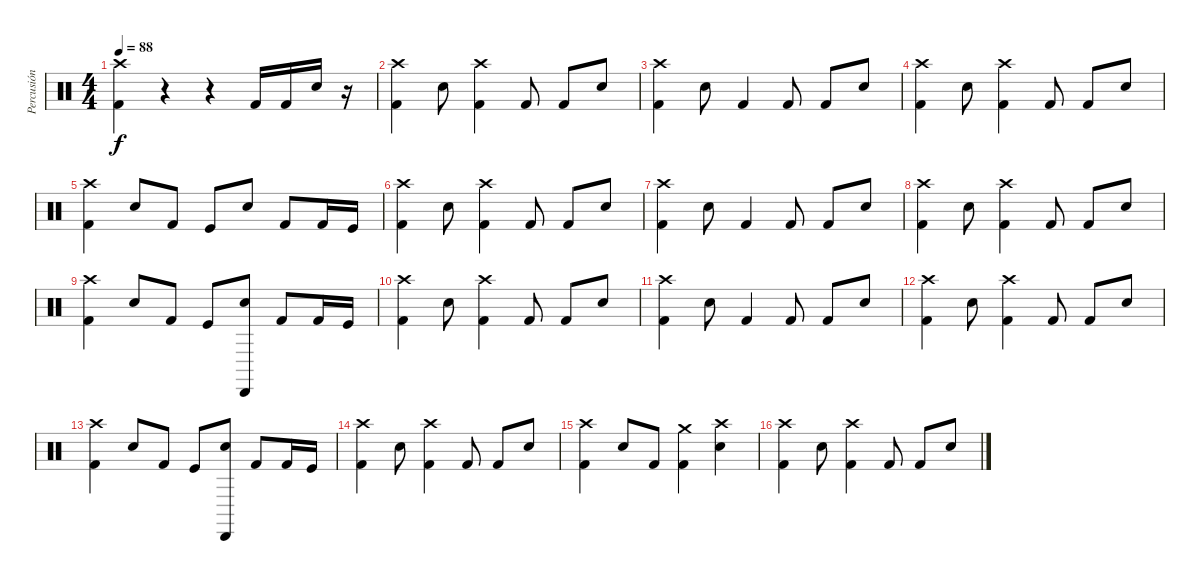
\track ("Percusión" "Percusión") {instrument percussion}
\staff {score}
\articulation defaults
\ts (4 4)
\tempo 88
\clef neutral
\ks c
("Crash high (hit)" "Kick (hit) 2").4{dy f} r.4 r.4 "Kick (hit) 2".16 "Kick (hit) 2".16 "Snare (hit) 2".16 r.16 |
("Crash high (hit)" "Kick (hit) 2").4 "Snare (hit) 2".8 ("Crash high (hit)" "Kick (hit) 2").4 "Kick (hit) 2".8 "Kick (hit) 2".8 "Snare (hit) 2".8 |
("Crash high (hit)" "Kick (hit) 2").4 "Snare (hit) 2".8 "Kick (hit) 2".4 "Kick (hit) 2".8 "Kick (hit) 2".8 "Snare (hit) 2".8 |
("Crash high (hit)" "Kick (hit) 2").4 "Snare (hit) 2".8 ("Crash high (hit)" "Kick (hit) 2").4 "Kick (hit) 2".8 "Kick (hit) 2".8 "Snare (hit) 2".8 |
("Crash high (hit)" "Kick (hit) 2").4 "Snare (hit) 2".8 "Kick (hit) 2".8 "Kick (hit)".8 "Snare (hit) 2".8 "Kick (hit) 2".8 "Kick (hit) 2".16 "Kick (hit)".16 |
("Crash high (hit)" "Kick (hit) 2").4 "Snare (hit) 2".8 ("Crash high (hit)" "Kick (hit) 2").4 "Kick (hit) 2".8 "Kick (hit) 2".8 "Snare (hit) 2".8 |
("Crash high (hit)" "Kick (hit) 2").4 "Snare (hit) 2".8 "Kick (hit) 2".4 "Kick (hit) 2".8 "Kick (hit) 2".8 "Snare (hit) 2".8 |
("Crash high (hit)" "Kick (hit) 2").4 "Snare (hit) 2".8 ("Crash high (hit)" "Kick (hit) 2").4 "Kick (hit) 2".8 "Kick (hit) 2".8 "Snare (hit) 2".8 |
("Crash high (hit)" "Kick (hit) 2").4 "Snare (hit) 2".8 "Kick (hit) 2".8 "Kick (hit)".8 ("Cabasa (hit)" "Snare (hit) 2").8 "Kick (hit) 2".8 "Kick (hit) 2".16 "Kick (hit)".16 |
("Crash high (hit)" "Kick (hit) 2").4 "Snare (hit) 2".8 ("Crash high (hit)" "Kick (hit) 2").4 "Kick (hit) 2".8 "Kick (hit) 2".8 "Snare (hit) 2".8 |
("Crash high (hit)" "Kick (hit) 2").4 "Snare (hit) 2".8 "Kick (hit) 2".4 "Kick (hit) 2".8 "Kick (hit) 2".8 "Snare (hit) 2".8 |
("Crash high (hit)" "Kick (hit) 2").4 "Snare (hit) 2".8 ("Crash high (hit)" "Kick (hit) 2").4 "Kick (hit) 2".8 "Kick (hit) 2".8 "Snare (hit) 2".8 |
("Crash high (hit)" "Kick (hit) 2").4 "Snare (hit) 2".8 "Kick (hit) 2".8 "Kick (hit)".8 ("Cabasa (hit)" "Snare (hit) 2").8 "Kick (hit) 2".8 "Kick (hit) 2".16 "Kick (hit)".16 |
("Crash high (hit)" "Kick (hit) 2").4 "Snare (hit) 2".8 ("Crash high (hit)" "Kick (hit) 2").4 "Kick (hit) 2".8 "Kick (hit) 2".8 "Snare (hit) 2".8 |
("Crash high (hit)" "Kick (hit) 2").4 "Snare (hit) 2".8 "Kick (hit) 2".8 ("Crash medium (hit)" "Kick (hit) 2").4 ("Crash high (hit)" "Snare (hit) 2").4 |
("Crash high (hit)" "Kick (hit) 2").4 "Snare (hit) 2".8 ("Crash high (hit)" "Kick (hit) 2").4 "Kick (hit) 2".8 "Kick (hit) 2".8 "Snare (hit) 2".8
